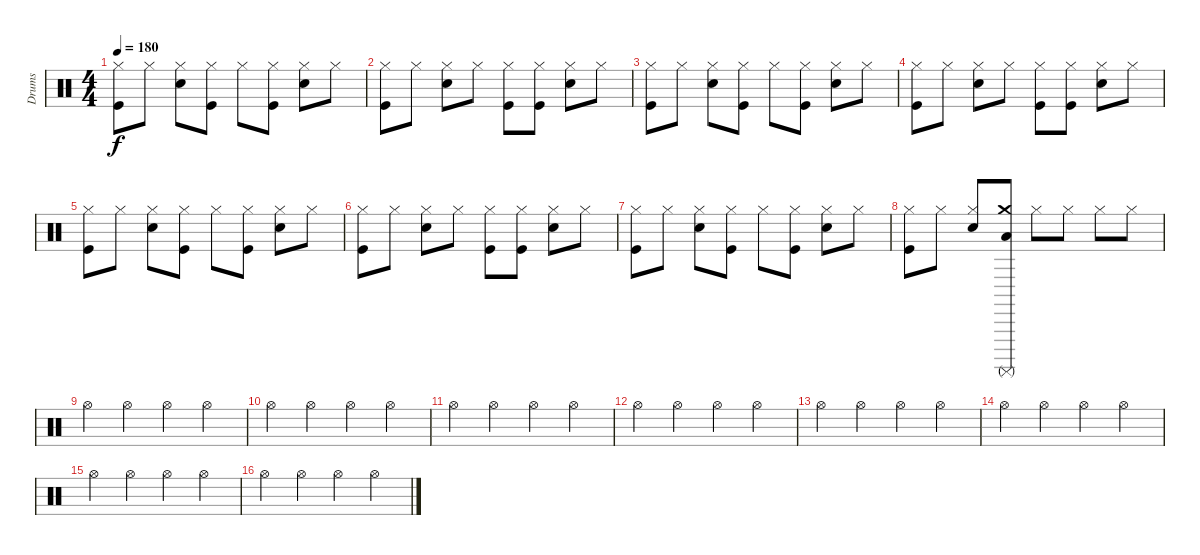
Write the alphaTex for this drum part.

\track ("Drums" "Drums") {instrument percussion}
\staff {score}
\articulation defaults
\ts (4 4)
\tempo 180
\clef neutral
\ks c
("Hi-Hat (closed)" "Kick (hit)").8{dy f} "Hi-Hat (closed)".8 ("Hi-Hat (closed)" "Snare (hit) 2").8 ("Hi-Hat (closed)" "Kick (hit)").8 "Hi-Hat (closed)".8 ("Hi-Hat (closed)" "Kick (hit)").8 ("Hi-Hat (closed)" "Snare (hit) 2").8 "Hi-Hat (closed)".8 |
("Hi-Hat (closed)" "Kick (hit)").8 "Hi-Hat (closed)".8 ("Hi-Hat (closed)" "Snare (hit) 2").8 "Hi-Hat (closed)".8 ("Hi-Hat (closed)" "Kick (hit)").8 ("Hi-Hat (closed)" "Kick (hit)").8 ("Hi-Hat (closed)" "Snare (hit) 2").8 "Hi-Hat (closed)".8 |
("Hi-Hat (closed)" "Kick (hit)").8 "Hi-Hat (closed)".8 ("Hi-Hat (closed)" "Snare (hit) 2").8 ("Hi-Hat (closed)" "Kick (hit)").8 "Hi-Hat (closed)".8 ("Hi-Hat (closed)" "Kick (hit)").8 ("Hi-Hat (closed)" "Snare (hit) 2").8 "Hi-Hat (closed)".8 |
("Hi-Hat (closed)" "Kick (hit)").8 "Hi-Hat (closed)".8 ("Hi-Hat (closed)" "Snare (hit) 2").8 "Hi-Hat (closed)".8 ("Hi-Hat (closed)" "Kick (hit)").8 ("Hi-Hat (closed)" "Kick (hit)").8 ("Hi-Hat (closed)" "Snare (hit) 2").8 "Hi-Hat (closed)".8 |
("Hi-Hat (closed)" "Kick (hit)").8 "Hi-Hat (closed)".8 ("Hi-Hat (closed)" "Snare (hit) 2").8 ("Hi-Hat (closed)" "Kick (hit)").8 "Hi-Hat (closed)".8 ("Hi-Hat (closed)" "Kick (hit)").8 ("Hi-Hat (closed)" "Snare (hit) 2").8 "Hi-Hat (closed)".8 |
("Hi-Hat (closed)" "Kick (hit)").8 "Hi-Hat (closed)".8 ("Hi-Hat (closed)" "Snare (hit) 2").8 "Hi-Hat (closed)".8 ("Hi-Hat (closed)" "Kick (hit)").8 ("Hi-Hat (closed)" "Kick (hit)").8 ("Hi-Hat (closed)" "Snare (hit) 2").8 "Hi-Hat (closed)".8 |
("Hi-Hat (closed)" "Kick (hit)").8 "Hi-Hat (closed)".8 ("Hi-Hat (closed)" "Snare (hit) 2").8 ("Hi-Hat (closed)" "Kick (hit)").8 "Hi-Hat (closed)".8 ("Hi-Hat (closed)" "Kick (hit)").8 ("Hi-Hat (closed)" "Snare (hit) 2").8 "Hi-Hat (closed)".8 |
("Hi-Hat (closed)" "Kick (hit)").8 "Hi-Hat (closed)".8 ("Hi-Hat (closed)" "Snare (hit) 2").8 ("Surdo (mute)" "Low Tom (hit)" "Crash medium (hit)").8 "Hi-Hat (closed)".8 "Hi-Hat (closed)".8 "Hi-Hat (closed)".8 "Hi-Hat (closed)".8 |
"Hi-Hat (open)".4 "Hi-Hat (open)".4 "Hi-Hat (open)".4 "Hi-Hat (open)".4 |
"Hi-Hat (open)".4 "Hi-Hat (open)".4 "Hi-Hat (open)".4 "Hi-Hat (open)".4 |
"Hi-Hat (open)".4 "Hi-Hat (open)".4 "Hi-Hat (open)".4 "Hi-Hat (open)".4 |
"Hi-Hat (open)".4 "Hi-Hat (open)".4 "Hi-Hat (open)".4 "Hi-Hat (open)".4 |
"Hi-Hat (open)".4 "Hi-Hat (open)".4 "Hi-Hat (open)".4 "Hi-Hat (open)".4 |
"Hi-Hat (open)".4 "Hi-Hat (open)".4 "Hi-Hat (open)".4 "Hi-Hat (open)".4 |
"Hi-Hat (open)".4 "Hi-Hat (open)".4 "Hi-Hat (open)".4 "Hi-Hat (open)".4 |
"Hi-Hat (open)".4 "Hi-Hat (open)".4 "Hi-Hat (open)".4 "Hi-Hat (open)".4
